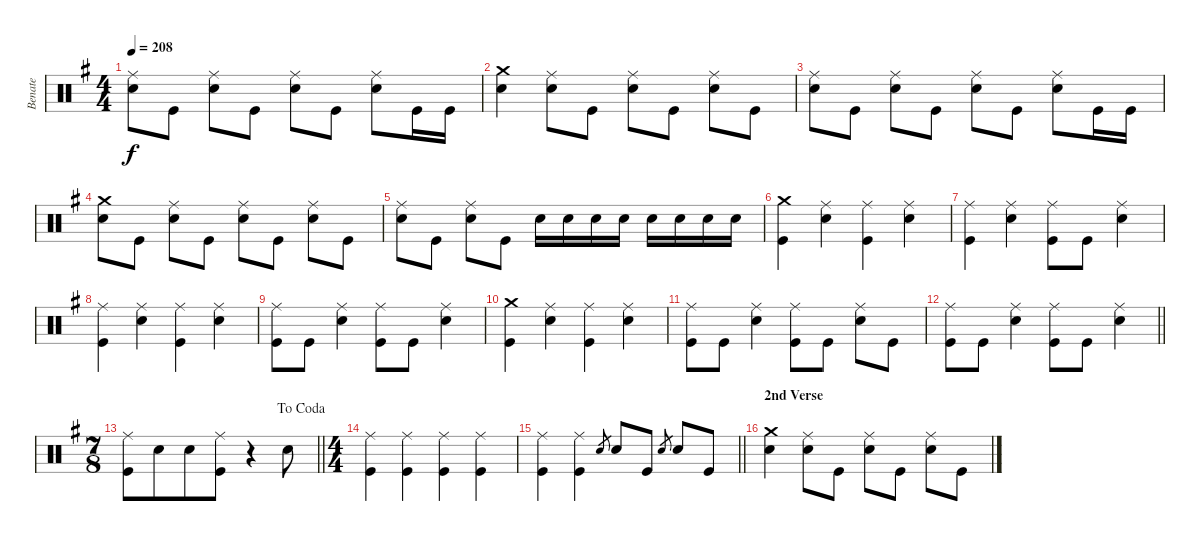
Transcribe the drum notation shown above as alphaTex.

\track ("Benate" "Benate") {instrument percussion}
\staff {score}
\articulation defaults
\ts (4 4)
\tempo 208
\clef neutral
\ks g
("Ride (middle)" "Snare (hit) 2").8{dy f} "Kick (hit)".8 ("Ride (middle)" "Snare (hit) 2").8 "Kick (hit)".8 ("Ride (middle)" "Snare (hit) 2").8 "Kick (hit)".8 ("Ride (middle)" "Snare (hit) 2").8 "Kick (hit)".16 "Kick (hit)".16 |
("Crash medium (hit)" "Snare (hit) 2").4 ("Ride (middle)" "Snare (hit) 2").8 "Kick (hit)".8 ("Ride (middle)" "Snare (hit) 2").8 "Kick (hit)".8 ("Ride (middle)" "Snare (hit) 2").8 "Kick (hit)".8 |
("Ride (middle)" "Snare (hit) 2").8 "Kick (hit)".8 ("Ride (middle)" "Snare (hit) 2").8 "Kick (hit)".8 ("Ride (middle)" "Snare (hit) 2").8 "Kick (hit)".8 ("Ride (middle)" "Snare (hit) 2").8 "Kick (hit)".16 "Kick (hit)".16 |
("Crash medium (hit)" "Snare (hit) 2").8 "Kick (hit)".8 ("Ride (middle)" "Snare (hit) 2").8 "Kick (hit)".8 ("Ride (middle)" "Snare (hit) 2").8 "Kick (hit)".8 ("Ride (middle)" "Snare (hit) 2").8 "Kick (hit)".8 |
("Ride (middle)" "Snare (hit) 2").8 "Kick (hit)".8 ("Ride (middle)" "Snare (hit) 2").8 "Kick (hit)".8 "Snare (hit) 2".16 "Snare (hit) 2".16 "Snare (hit) 2".16 "Snare (hit) 2".16 "Snare (hit) 2".16 "Snare (hit) 2".16 "Snare (hit) 2".16 "Snare (hit) 2".16 |
("Crash medium (hit)" "Kick (hit)").4 ("Ride (middle)" "Snare (hit) 2").4 ("Ride (middle)" "Kick (hit)").4 ("Ride (middle)" "Snare (hit) 2").4 |
("Ride (middle)" "Kick (hit)").4 ("Ride (middle)" "Snare (hit) 2").4 ("Ride (middle)" "Kick (hit)").8 "Kick (hit)".8 ("Ride (middle)" "Snare (hit) 2").4 |
("Ride (middle)" "Kick (hit)").4 ("Ride (middle)" "Snare (hit) 2").4 ("Ride (middle)" "Kick (hit)").4 ("Ride (middle)" "Snare (hit) 2").4 |
("Ride (middle)" "Kick (hit)").8 "Kick (hit)".8 ("Ride (middle)" "Snare (hit) 2").4 ("Ride (middle)" "Kick (hit)").8 "Kick (hit)".8 ("Ride (middle)" "Snare (hit) 2").4 |
("Crash medium (hit)" "Kick (hit)").4 ("Ride (middle)" "Snare (hit) 2").4 ("Ride (middle)" "Kick (hit)").4 ("Ride (middle)" "Snare (hit) 2").4 |
("Ride (middle)" "Kick (hit)").8 "Kick (hit)".8 ("Ride (middle)" "Snare (hit) 2").4 ("Ride (middle)" "Kick (hit)").8 "Kick (hit)".8 ("Ride (middle)" "Snare (hit) 2").8 "Kick (hit)".8 |
\barLineRight lightlight
("Ride (middle)" "Kick (hit)").8 "Kick (hit)".8 ("Ride (middle)" "Snare (hit) 2").4 ("Ride (middle)" "Kick (hit)").8 "Kick (hit)".8 ("Ride (middle)" "Snare (hit) 2").4 |
\ts (7 8)
\jump dacoda
\barLineRight lightlight
("Ride (middle)" "Kick (hit)").8 "Snare (hit) 2".8 "Snare (hit) 2".8 ("Ride (middle)" "Kick (hit)").8 r.4 "Snare (hit) 2".8 |
\ts (4 4)
("Ride (middle)" "Kick (hit)").4 ("Ride (middle)" "Kick (hit)").4 ("Ride (middle)" "Kick (hit)").4 ("Ride (middle)" "Kick (hit)").4 |
\barLineRight lightlight
("Ride (middle)" "Kick (hit)").4 ("Ride (middle)" "Kick (hit)").4 "Snare (hit) 2".8{gr} "Snare (hit) 2".8 "Kick (hit)".8 "Snare (hit) 2".8{gr} "Snare (hit) 2".8 "Kick (hit)".8 |
\section ("" "2nd Verse")
("Crash medium (hit)" "Snare (hit) 2").4 ("Ride (middle)" "Snare (hit) 2").8 "Kick (hit)".8 ("Ride (middle)" "Snare (hit) 2").8 "Kick (hit)".8 ("Ride (middle)" "Snare (hit) 2").8 "Kick (hit)".8
